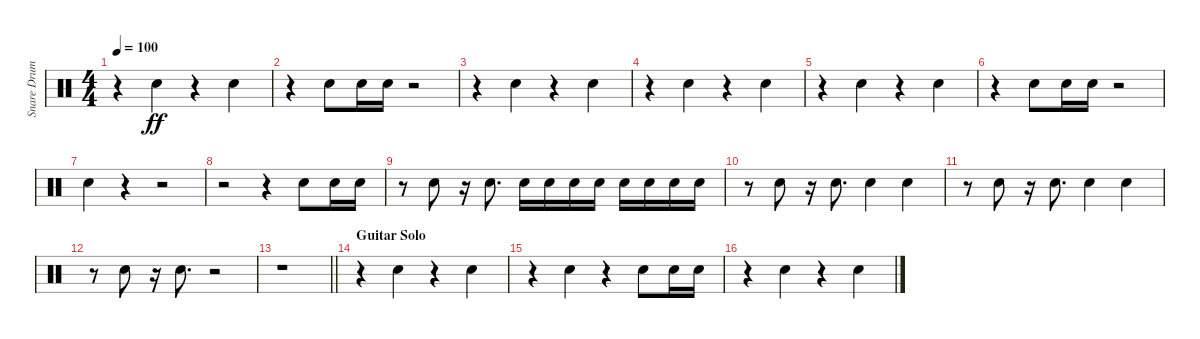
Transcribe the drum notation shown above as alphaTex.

\track ("Snare Drum" "Snare Drum") {instrument percussion}
\staff {score}
\articulation defaults
\ts (4 4)
\tempo 100
\clef neutral
\ks c
r.4{dy ff} "Electric Snare (hit)".4 r.4 "Electric Snare (hit)".4 |
r.4 "Electric Snare (hit)".8 "Electric Snare (hit)".16 "Electric Snare (hit)".16 r.2 |
r.4 "Electric Snare (hit)".4 r.4 "Electric Snare (hit)".4 |
r.4 "Electric Snare (hit)".4 r.4 "Electric Snare (hit)".4 |
r.4 "Electric Snare (hit)".4 r.4 "Electric Snare (hit)".4 |
r.4 "Electric Snare (hit)".8 "Electric Snare (hit)".16 "Electric Snare (hit)".16 r.2 |
"Electric Snare (hit)".4 r.4 r.2 |
r.2 r.4 "Electric Snare (hit)".8 "Electric Snare (hit)".16 "Electric Snare (hit)".16 |
r.8 "Electric Snare (hit)".8 r.16 "Electric Snare (hit)".8{d} "Electric Snare (hit)".16 "Electric Snare (hit)".16 "Electric Snare (hit)".16 "Electric Snare (hit)".16 "Electric Snare (hit)".16 "Electric Snare (hit)".16 "Electric Snare (hit)".16 "Electric Snare (hit)".16 |
r.8 "Electric Snare (hit)".8 r.16 "Electric Snare (hit)".8{d} "Electric Snare (hit)".4 "Electric Snare (hit)".4 |
r.8 "Electric Snare (hit)".8 r.16 "Electric Snare (hit)".8{d} "Electric Snare (hit)".4 "Electric Snare (hit)".4 |
r.8 "Electric Snare (hit)".8 r.16 "Electric Snare (hit)".8{d} r.2 |
\barLineRight lightlight
r.1 |
\section ("" "Guitar Solo")
r.4 "Electric Snare (hit)".4 r.4 "Electric Snare (hit)".4 |
r.4 "Electric Snare (hit)".4 r.4 "Electric Snare (hit)".8 "Electric Snare (hit)".16 "Electric Snare (hit)".16 |
r.4 "Electric Snare (hit)".4 r.4 "Electric Snare (hit)".4
